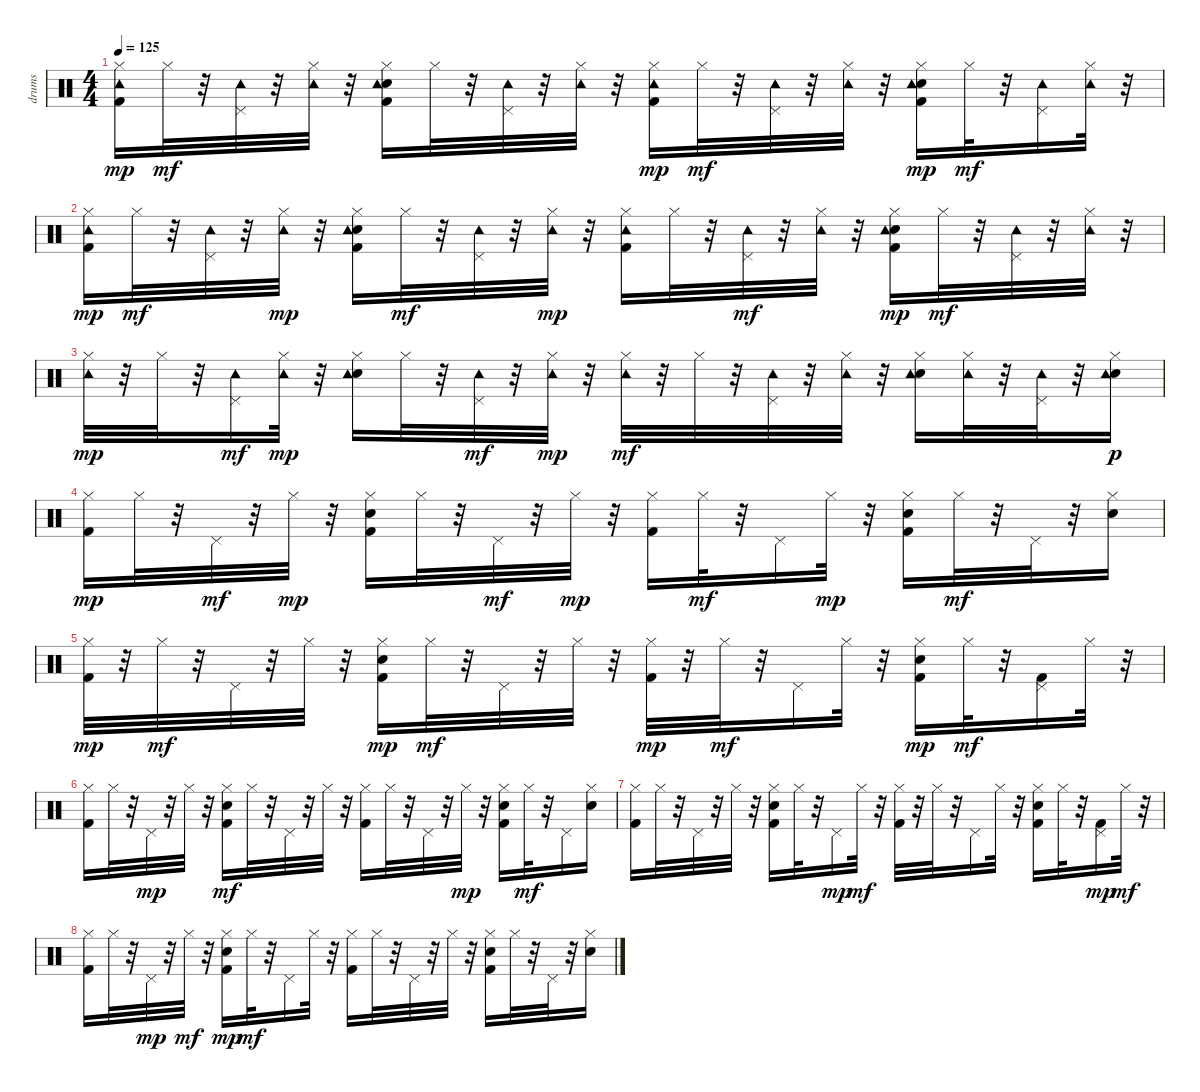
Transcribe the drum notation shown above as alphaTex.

\track ("drums   " "drums   ") {instrument percussion}
\staff {score}
\articulation defaults
\ts (4 4)
\tempo 125
\clef neutral
\ks c
("Kick (hit) 2" "Hi-Hat (closed)" "Tambourine (hit)").16{dy mp} "Hi-Hat (closed)".32{dy mf} r.32 ("Pedal Hi-Hat (hit)" "Tambourine (hit)").32 r.32 ("Hi-Hat (closed)" "Tambourine (hit)").32 r.32 ("Kick (hit) 2" "Snare (hit) 2" "Hi-Hat (closed)" "Tambourine (hit)").16 "Hi-Hat (closed)".32 r.32 ("Pedal Hi-Hat (hit)" "Tambourine (hit)").32 r.32 ("Hi-Hat (closed)" "Tambourine (hit)").32 r.32 ("Kick (hit) 2" "Hi-Hat (closed)" "Tambourine (hit)").16{dy mp} "Hi-Hat (closed)".32{dy mf} r.32 ("Pedal Hi-Hat (hit)" "Tambourine (hit)").32 r.32 ("Hi-Hat (closed)" "Tambourine (hit)").32 r.32 ("Kick (hit) 2" "Snare (hit) 2" "Hi-Hat (closed)" "Tambourine (hit)").16{dy mp} "Hi-Hat (closed)".32{dy mf} r.32 ("Pedal Hi-Hat (hit)" "Tambourine (hit)").16 ("Hi-Hat (closed)" "Tambourine (hit)").32 r.32 |
("Kick (hit) 2" "Hi-Hat (closed)" "Tambourine (hit)").16{dy mp} "Hi-Hat (closed)".32{dy mf} r.32 ("Pedal Hi-Hat (hit)" "Tambourine (hit)").32 r.32 ("Hi-Hat (closed)" "Tambourine (hit)").32{dy mp} r.32 ("Kick (hit) 2" "Snare (hit) 2" "Hi-Hat (closed)" "Tambourine (hit)").16 "Hi-Hat (closed)".32{dy mf} r.32 ("Pedal Hi-Hat (hit)" "Tambourine (hit)").32 r.32 ("Hi-Hat (closed)" "Tambourine (hit)").32{dy mp} r.32 ("Kick (hit) 2" "Hi-Hat (closed)" "Tambourine (hit)").16 "Hi-Hat (closed)".32 r.32 ("Pedal Hi-Hat (hit)" "Tambourine (hit)").32{dy mf} r.32 ("Hi-Hat (closed)" "Tambourine (hit)").32 r.32 ("Kick (hit) 2" "Snare (hit) 2" "Hi-Hat (closed)" "Tambourine (hit)").16{dy mp} "Hi-Hat (closed)".32{dy mf} r.32 ("Pedal Hi-Hat (hit)" "Tambourine (hit)").32 r.32 ("Hi-Hat (closed)" "Tambourine (hit)").32 r.32 |
("Hi-Hat (closed)" "Tambourine (hit)").32{dy mp} r.32 "Hi-Hat (closed)".32 r.32 ("Pedal Hi-Hat (hit)" "Tambourine (hit)").16{dy mf} ("Hi-Hat (closed)" "Tambourine (hit)").32{dy mp} r.32 ("Snare (hit) 2" "Hi-Hat (closed)" "Tambourine (hit)").16 "Hi-Hat (closed)".32 r.32 ("Pedal Hi-Hat (hit)" "Tambourine (hit)").32{dy mf} r.32 ("Hi-Hat (closed)" "Tambourine (hit)").32{dy mp} r.32 ("Hi-Hat (closed)" "Tambourine (hit)").32{dy mf} r.32 "Hi-Hat (closed)".32 r.32 ("Pedal Hi-Hat (hit)" "Tambourine (hit)").32 r.32 ("Hi-Hat (closed)" "Tambourine (hit)").32 r.32 ("Snare (hit) 2" "Hi-Hat (closed)" "Tambourine (hit)").16 ("Hi-Hat (closed)" "Tambourine (hit)").32 r.32 ("Pedal Hi-Hat (hit)" "Tambourine (hit)").32 r.32 ("Snare (hit) 2" "Hi-Hat (closed)" "Tambourine (hit)").16{dy p} |
("Kick (hit) 2" "Hi-Hat (closed)").16{dy mp} "Hi-Hat (closed)".32 r.32 "Pedal Hi-Hat (hit)".32{dy mf} r.32 "Hi-Hat (closed)".32{dy mp} r.32 ("Kick (hit) 2" "Snare (hit) 2" "Hi-Hat (closed)").16 "Hi-Hat (closed)".32 r.32 "Pedal Hi-Hat (hit)".32{dy mf} r.32 "Hi-Hat (closed)".32{dy mp} r.32 ("Kick (hit) 2" "Hi-Hat (closed)").16 "Hi-Hat (closed)".32{dy mf} r.32 "Pedal Hi-Hat (hit)".16 "Hi-Hat (closed)".32{dy mp} r.32 ("Kick (hit) 2" "Snare (hit) 2" "Hi-Hat (closed)").16 "Hi-Hat (closed)".32{dy mf} r.32 "Pedal Hi-Hat (hit)".32 r.32 ("Snare (hit) 2" "Hi-Hat (closed)").16 |
("Kick (hit) 2" "Hi-Hat (closed)").32{dy mp} r.32 "Hi-Hat (closed)".32{dy mf} r.32 "Pedal Hi-Hat (hit)".32 r.32 "Hi-Hat (closed)".32 r.32 ("Kick (hit) 2" "Snare (hit) 2" "Hi-Hat (closed)").16{dy mp} "Hi-Hat (closed)".32{dy mf} r.32 "Pedal Hi-Hat (hit)".32 r.32 "Hi-Hat (closed)".32 r.32 ("Kick (hit) 2" "Hi-Hat (closed)").32{dy mp} r.32 "Hi-Hat (closed)".32{dy mf} r.32 "Pedal Hi-Hat (hit)".16 "Hi-Hat (closed)".32 r.32 ("Kick (hit) 2" "Snare (hit) 2" "Hi-Hat (closed)").16{dy mp} "Hi-Hat (closed)".32{dy mf} r.32 ("Kick (hit) 2" "Pedal Hi-Hat (hit)").16 "Hi-Hat (closed)".32 r.32 |
("Kick (hit) 2" "Hi-Hat (closed)").16 "Hi-Hat (closed)".32 r.32 "Pedal Hi-Hat (hit)".32{dy mp} r.32 "Hi-Hat (closed)".32 r.32 ("Kick (hit) 2" "Snare (hit) 2" "Hi-Hat (closed)").16{dy mf} "Hi-Hat (closed)".32 r.32 "Pedal Hi-Hat (hit)".32 r.32 "Hi-Hat (closed)".32 r.32 ("Kick (hit) 2" "Hi-Hat (closed)").16 "Hi-Hat (closed)".32 r.32 "Pedal Hi-Hat (hit)".32 r.32 "Hi-Hat (closed)".32{dy mp} r.32 ("Kick (hit) 2" "Snare (hit) 2" "Hi-Hat (closed)").16 "Hi-Hat (closed)".32{dy mf} r.32 "Pedal Hi-Hat (hit)".16 ("Snare (hit) 2" "Hi-Hat (closed)").16 |
("Kick (hit) 2" "Hi-Hat (closed)").16 "Hi-Hat (closed)".32 r.32 "Pedal Hi-Hat (hit)".32 r.32 "Hi-Hat (closed)".32 r.32 ("Kick (hit) 2" "Snare (hit) 2" "Hi-Hat (closed)").16 "Hi-Hat (closed)".32 r.32 "Pedal Hi-Hat (hit)".16{dy mp} "Hi-Hat (closed)".32{dy mf} r.32 ("Kick (hit) 2" "Hi-Hat (closed)").32 r.32 "Hi-Hat (closed)".32 r.32 "Pedal Hi-Hat (hit)".16 "Hi-Hat (closed)".32 r.32 ("Kick (hit) 2" "Snare (hit) 2" "Hi-Hat (closed)").16 "Hi-Hat (closed)".32 r.32 ("Kick (hit) 2" "Pedal Hi-Hat (hit)").16{dy mp} "Hi-Hat (closed)".32{dy mf} r.32 |
("Kick (hit) 2" "Hi-Hat (closed)").16 "Hi-Hat (closed)".32 r.32 "Pedal Hi-Hat (hit)".32{dy mp} r.32 "Hi-Hat (closed)".32{dy mf} r.32 ("Kick (hit) 2" "Snare (hit) 2" "Hi-Hat (closed)").16{dy mp} "Hi-Hat (closed)".32{dy mf} r.32 "Pedal Hi-Hat (hit)".16 "Hi-Hat (closed)".32 r.32 ("Kick (hit) 2" "Hi-Hat (closed)").16 "Hi-Hat (closed)".32 r.32 "Pedal Hi-Hat (hit)".32 r.32 "Hi-Hat (closed)".32 r.32 ("Kick (hit) 2" "Snare (hit) 2" "Hi-Hat (closed)").16 "Hi-Hat (closed)".32 r.32 "Pedal Hi-Hat (hit)".32 r.32 ("Snare (hit) 2" "Hi-Hat (closed)").16
